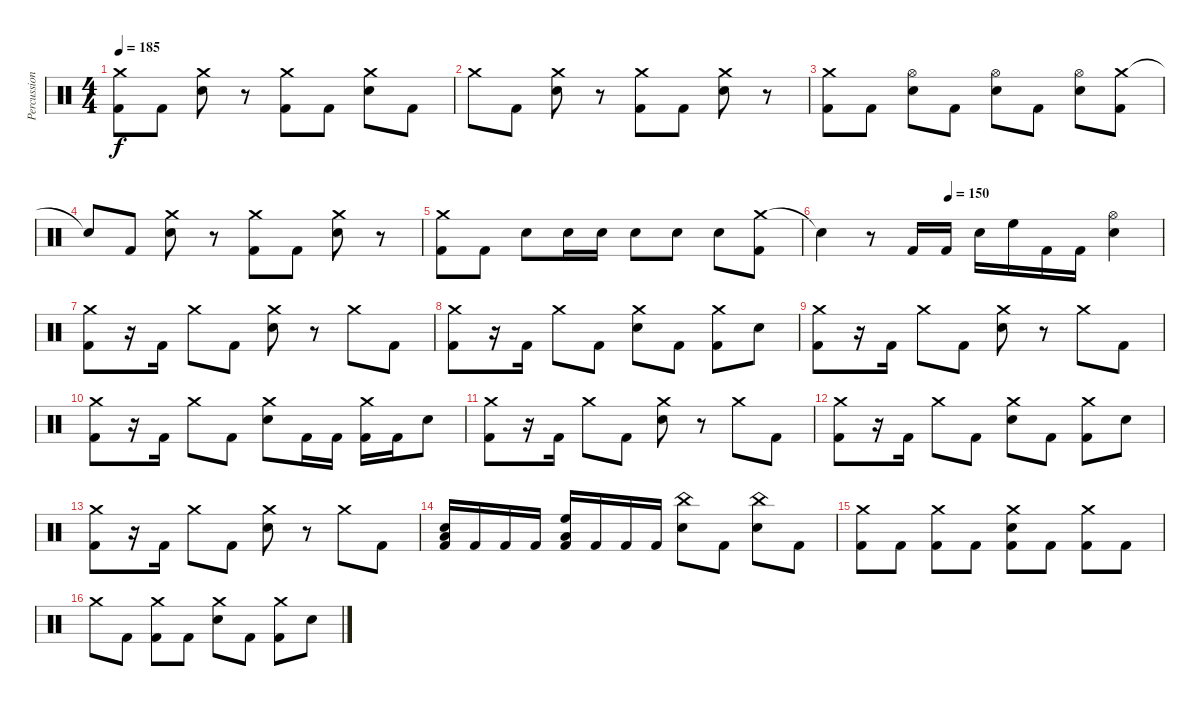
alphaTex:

\track ("Percussion" "Percussion") {instrument percussion}
\staff {score}
\articulation defaults
\ts (4 4)
\tempo 185
\clef neutral
\ks c
("Crash medium (hit)" "Kick (hit) 2").8{dy f} "Kick (hit) 2".8 ("Crash medium (hit)" "Snare (hit) 2").8 r.8 ("Crash medium (hit)" "Kick (hit) 2").8 "Kick (hit) 2".8 ("Crash medium (hit)" "Snare (hit) 2").8 "Kick (hit) 2".8 |
"Crash medium (hit)".8 "Kick (hit) 2".8 ("Crash medium (hit)" "Snare (hit) 2").8 r.8 ("Crash medium (hit)" "Kick (hit) 2").8 "Kick (hit) 2".8 ("Crash medium (hit)" "Snare (hit) 2").8 r.8 |
("Crash medium (hit)" "Kick (hit) 2").8 "Kick (hit) 2".8 ("Hi-Hat (open)" "Snare (hit) 2").8 "Kick (hit) 2".8 ("Hi-Hat (open)" "Snare (hit) 2").8 "Kick (hit) 2".8 ("Hi-Hat (open)" "Snare (hit) 2").8 ("Crash medium (hit)" "Kick (hit) 2").8 |
"Snare (hit)"{t}.8 "Kick (hit) 2".8 ("Crash medium (hit)" "Snare (hit) 2").8 r.8 ("Crash medium (hit)" "Kick (hit) 2").8 "Kick (hit) 2".8 ("Crash medium (hit)" "Snare (hit) 2").8 r.8 |
("Crash medium (hit)" "Kick (hit) 2").8 "Kick (hit) 2".8 "Snare (hit) 2".8 "Snare (hit) 2".16 "Snare (hit) 2".16 "Snare (hit) 2".8 "Snare (hit) 2".8 "Snare (hit) 2".8 ("Crash medium (hit)" "Kick (hit) 2").8 |
\tempo (150 0.375)
"Snare (hit)"{t}.4 r.8 "Kick (hit) 2".16 "Kick (hit) 2".16 "Snare (hit) 2".16 "High Floor Tom (hit)".16 "Kick (hit) 2".16 "Kick (hit) 2".16 ("Hi-Hat (open)" "Snare (hit) 2").4 |
("Crash medium (hit)" "Kick (hit) 2").8 r.16 "Kick (hit) 2".16 "Crash medium (hit)".8 "Kick (hit) 2".8 ("Crash medium (hit)" "Snare (hit) 2").8 r.8 "Crash medium (hit)".8 "Kick (hit) 2".8 |
("Crash medium (hit)" "Kick (hit) 2").8 r.16 "Kick (hit) 2".16 "Crash medium (hit)".8 "Kick (hit) 2".8 ("Crash medium (hit)" "Snare (hit) 2").8 "Kick (hit) 2".8 ("Crash medium (hit)" "Kick (hit) 2").8 "Snare (hit) 2".8 |
("Crash medium (hit)" "Kick (hit) 2").8 r.16 "Kick (hit) 2".16 "Crash medium (hit)".8 "Kick (hit) 2".8 ("Crash medium (hit)" "Snare (hit) 2").8 r.8 "Crash medium (hit)".8 "Kick (hit) 2".8 |
("Crash medium (hit)" "Kick (hit) 2").8 r.16 "Kick (hit) 2".16 "Crash medium (hit)".8 "Kick (hit) 2".8 ("Crash medium (hit)" "Snare (hit) 2").8 "Kick (hit) 2".16 "Kick (hit) 2".16 ("Crash medium (hit)" "Kick (hit) 2").16 "Kick (hit) 2".16 "Snare (hit) 2".8 |
("Crash medium (hit)" "Kick (hit) 2").8 r.16 "Kick (hit) 2".16 "Crash medium (hit)".8 "Kick (hit) 2".8 ("Crash medium (hit)" "Snare (hit) 2").8 r.8 "Crash medium (hit)".8 "Kick (hit) 2".8 |
("Crash medium (hit)" "Kick (hit) 2").8 r.16 "Kick (hit) 2".16 "Crash medium (hit)".8 "Kick (hit) 2".8 ("Crash medium (hit)" "Snare (hit) 2").8 "Kick (hit) 2".8 ("Crash medium (hit)" "Kick (hit) 2").8 "Snare (hit) 2".8 |
("Crash medium (hit)" "Kick (hit) 2").8 r.16 "Kick (hit) 2".16 "Crash medium (hit)".8 "Kick (hit) 2".8 ("Crash medium (hit)" "Snare (hit) 2").8 r.8 "Crash medium (hit)".8 "Kick (hit) 2".8 |
("Low Floor Tom (hit)" "Snare (hit) 2" "Kick (hit) 2").16 "Kick (hit) 2".16 "Kick (hit) 2".16 "Kick (hit) 2".16 ("Low Floor Tom (hit)" "High Floor Tom (hit)" "Kick (hit) 2").16 "Kick (hit) 2".16 "Kick (hit) 2".16 "Kick (hit) 2".16 ("China (hit)" "Snare (hit) 2").8 "Kick (hit) 2".8 ("China (hit)" "Snare (hit) 2").8 "Kick (hit) 2".8 |
("Crash medium (hit)" "Kick (hit) 2").8 "Kick (hit) 2".8 ("Crash medium (hit)" "Kick (hit) 2").8 "Kick (hit) 2".8 ("Crash medium (hit)" "Snare (hit) 2" "Kick (hit) 2").8 "Kick (hit) 2".8 ("Crash medium (hit)" "Kick (hit) 2").8 "Kick (hit) 2".8 |
"Crash medium (hit)".8 "Kick (hit) 2".8 ("Crash medium (hit)" "Kick (hit) 2").8 "Kick (hit) 2".8 ("Crash medium (hit)" "Snare (hit) 2").8 "Kick (hit) 2".8 ("Crash medium (hit)" "Kick (hit) 2").8 "Snare (hit) 2".8
